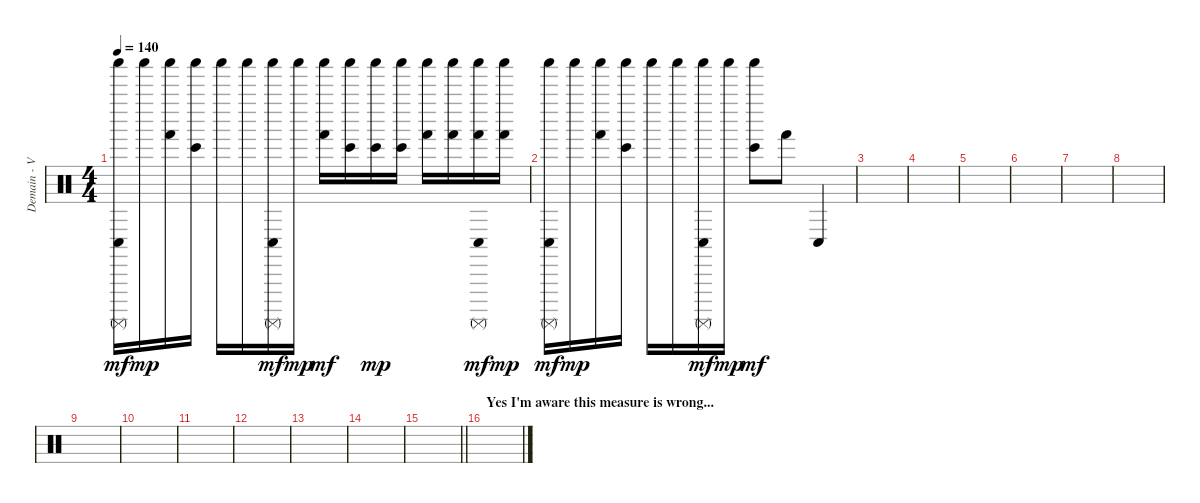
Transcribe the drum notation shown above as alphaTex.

\track ("Demain - Various Perc." "Demain - V") {instrument percussion}
\staff {score}
\articulation defaults
\ts (4 4)
\tempo 140
\clef neutral
\ks c
("Shaker (hit)" "Surdo (mute)" "Conga low (hit)").16{dy mf} "Shaker (hit)".16{dy mp} ("Shaker (hit)" "Hand (hit)").16 ("Shaker (hit)" "Bongo High (hit)").16 "Shaker (hit)".16 "Shaker (hit)".16 ("Shaker (hit)" "Surdo (mute)" "Conga low (hit)").16{dy mf} "Shaker (hit)".16{dy mp} ("Shaker (hit)" "Hand (hit)").16{dy mf} ("Shaker (hit)" "Bongo High (hit)").16 ("Shaker (hit)" "Bongo High (hit)").16{dy mp} ("Shaker (hit)" "Bongo High (hit)").16 ("Shaker (hit)" "Hand (hit)").16 ("Shaker (hit)" "Hand (hit)").16 ("Shaker (hit)" "Hand (hit)" "Surdo (mute)" "Conga low (hit)").16{dy mf} ("Shaker (hit)" "Hand (hit)").16{dy mp} |
("Shaker (hit)" "Surdo (mute)" "Conga low (hit)").16{dy mf} "Shaker (hit)".16{dy mp} ("Shaker (hit)" "Hand (hit)").16 ("Shaker (hit)" "Bongo High (hit)").16 "Shaker (hit)".16 "Shaker (hit)".16 ("Shaker (hit)" "Surdo (mute)" "Conga low (hit)").16{dy mf} "Shaker (hit)".16{dy mp} ("Shaker (hit)" "Bongo High (hit)").8{dy mf} "Hand (hit)".8 "Conga low (hit)".4 |
|
|
|
|
|
|
|
|
|
|
|
|
\barLineRight lightlight
|
\section ("" "Yes I'm aware this measure is wrong...")
